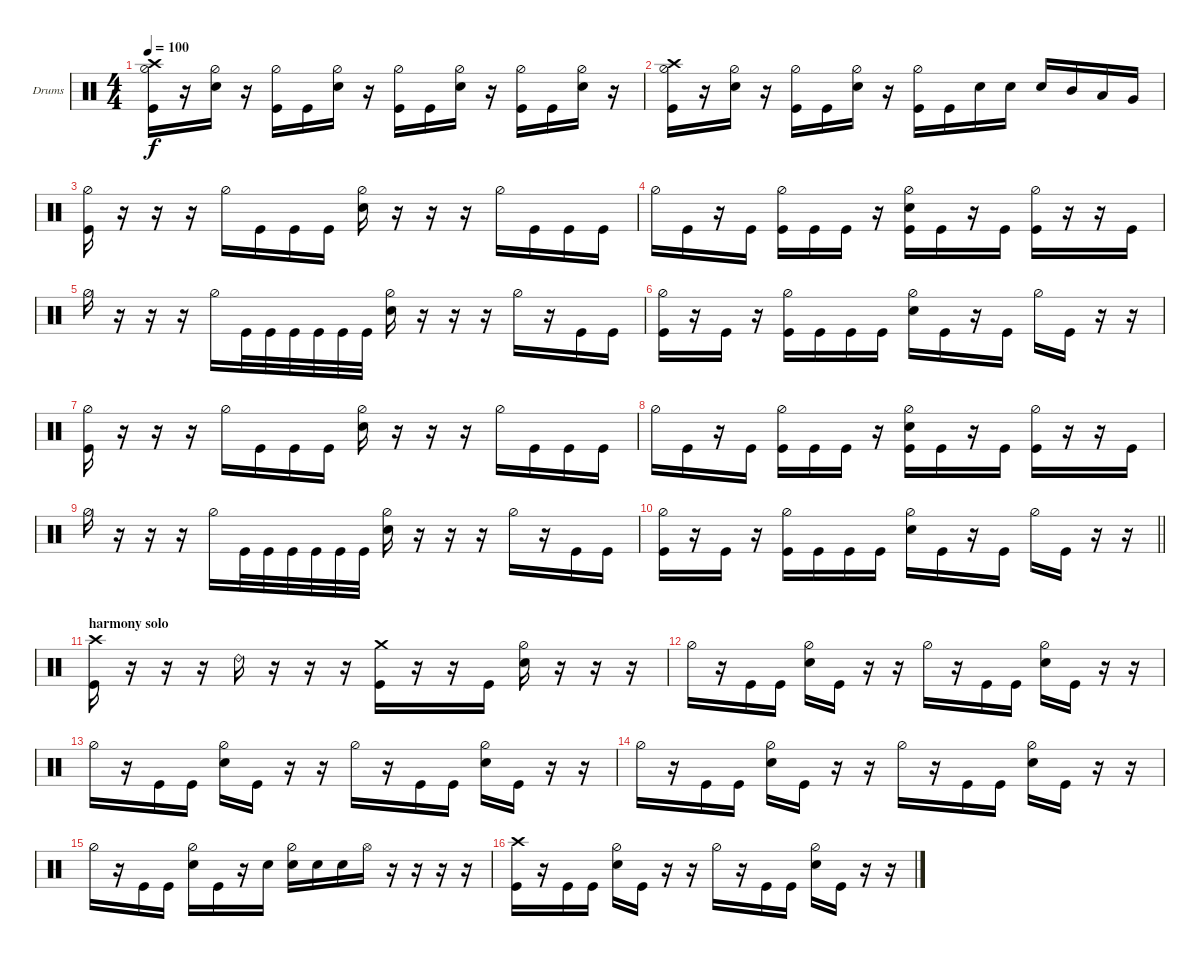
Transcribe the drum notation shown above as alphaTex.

\bracketExtendMode groupsimilarinstruments
\firstSystemTrackNameOrientation horizontal
\otherSystemsTrackNameOrientation horizontal
\track ("Drumkit" "Drums") {instrument percussion}
\staff {score}
\articulation defaults
\ts (4 4)
\tempo 100
\clef neutral
\scale
0.333333
\ks c
("Hi-Hat (half)" "Kick (hit)" "Crash high (hit)").16{dy f} r.16 ("Hi-Hat (half)" "Snare (hit) 2").16 r.16 ("Hi-Hat (half)" "Kick (hit)").16 "Kick (hit)".16 ("Hi-Hat (half)" "Snare (hit) 2").16 r.16 ("Hi-Hat (half)" "Kick (hit)").16 "Kick (hit)".16 ("Hi-Hat (half)" "Snare (hit) 2").16 r.16 ("Hi-Hat (half)" "Kick (hit)").16 "Kick (hit)".16 ("Hi-Hat (half)" "Snare (hit) 2").16 r.16 |
\scale
0.333333 ("Hi-Hat (half)" "Kick (hit)" "Crash high (hit)").16 r.16 ("Hi-Hat (half)" "Snare (hit) 2").16 r.16 ("Hi-Hat (half)" "Kick (hit)").16 "Kick (hit)".16 ("Hi-Hat (half)" "Snare (hit) 2").16 r.16 ("Hi-Hat (half)" "Kick (hit)").16 "Kick (hit)".16 "Snare (hit) 2".16 "Snare (hit) 2".16 "Snare (hit) 2".16 "Mid Tom (hit)".16 "Low Tom (hit)".16 "Very Low Tom (hit)".16 |
\scale
0.333333 ("Hi-Hat (half)" "Kick (hit)").16 r.16 r.16 r.16 "Hi-Hat (half)".16 "Kick (hit)".16 "Kick (hit)".16 "Kick (hit)".16 ("Hi-Hat (half)" "Snare (hit) 2").16 r.16 r.16 r.16 "Hi-Hat (half)".16 "Kick (hit)".16 "Kick (hit)".16 "Kick (hit)".16 |
\scale
0.333333 "Hi-Hat (half)".16 "Kick (hit)".16 r.16 "Kick (hit)".16 ("Hi-Hat (half)" "Kick (hit)").16 "Kick (hit)".16 "Kick (hit)".16 r.16 ("Hi-Hat (half)" "Kick (hit)" "Snare (hit) 2").16 "Kick (hit)".16 r.16 "Kick (hit)".16 ("Hi-Hat (half)" "Kick (hit)").16 r.16 r.16 "Kick (hit)".16 |
\scale
0.333333 "Hi-Hat (half)".16 r.16 r.16 r.16 "Hi-Hat (half)".16 "Kick (hit)".32 "Kick (hit)".32 "Kick (hit)".32 "Kick (hit)".32 "Kick (hit)".32 "Kick (hit)".32 ("Hi-Hat (half)" "Snare (hit) 2").16 r.16 r.16 r.16 "Hi-Hat (half)".16 r.16 "Kick (hit)".16 "Kick (hit)".16 |
\scale
0.333333 ("Kick (hit)" "Hi-Hat (half)").16 r.16 "Kick (hit)".16 r.16 ("Kick (hit)" "Hi-Hat (half)").16 "Kick (hit)".16 "Kick (hit)".16 "Kick (hit)".16 ("Hi-Hat (half)" "Snare (hit) 2").16 "Kick (hit)".16 r.16 "Kick (hit)".16 "Hi-Hat (half)".16 "Kick (hit)".16 r.16 r.16 |
\scale
0.333333 ("Hi-Hat (half)" "Kick (hit)").16 r.16 r.16 r.16 "Hi-Hat (half)".16 "Kick (hit)".16 "Kick (hit)".16 "Kick (hit)".16 ("Hi-Hat (half)" "Snare (hit) 2").16 r.16 r.16 r.16 "Hi-Hat (half)".16 "Kick (hit)".16 "Kick (hit)".16 "Kick (hit)".16 |
\scale
0.333333 "Hi-Hat (half)".16 "Kick (hit)".16 r.16 "Kick (hit)".16 ("Hi-Hat (half)" "Kick (hit)").16 "Kick (hit)".16 "Kick (hit)".16 r.16 ("Hi-Hat (half)" "Kick (hit)" "Snare (hit) 2").16 "Kick (hit)".16 r.16 "Kick (hit)".16 ("Hi-Hat (half)" "Kick (hit)").16 r.16 r.16 "Kick (hit)".16 |
\scale
0.333333 "Hi-Hat (half)".16 r.16 r.16 r.16 "Hi-Hat (half)".16 "Kick (hit)".32 "Kick (hit)".32 "Kick (hit)".32 "Kick (hit)".32 "Kick (hit)".32 "Kick (hit)".32 ("Hi-Hat (half)" "Snare (hit) 2").16 r.16 r.16 r.16 "Hi-Hat (half)".16 r.16 "Kick (hit)".16 "Kick (hit)".16 |
\scale
0.333333
\barLineRight lightlight
("Kick (hit)" "Hi-Hat (half)").16 r.16 "Kick (hit)".16 r.16 ("Kick (hit)" "Hi-Hat (half)").16 "Kick (hit)".16 "Kick (hit)".16 "Kick (hit)".16 ("Hi-Hat (half)" "Snare (hit) 2").16 "Kick (hit)".16 r.16 "Kick (hit)".16 "Hi-Hat (half)".16 "Kick (hit)".16 r.16 r.16 |
\section ("" "harmony solo")
\scale
0.333333 ("Kick (hit)" "Crash high (hit)").16 r.16 r.16 r.16 "Ride (bell) 2".16 r.16 r.16 r.16 ("Kick (hit)" "Crash medium (hit)").16 r.16 r.16 "Kick (hit)".16 ("Snare (hit) 2" "Hi-Hat (half)").16 r.16 r.16 r.16 |
\scale
0.333333 "Hi-Hat (half)".16 r.16 "Kick (hit)".16 "Kick (hit)".16 ("Hi-Hat (half)" "Snare (hit) 2").16 "Kick (hit)".16 r.16 r.16 "Hi-Hat (half)".16 r.16 "Kick (hit)".16 "Kick (hit)".16 ("Hi-Hat (half)" "Snare (hit) 2").16 "Kick (hit)".16 r.16 r.16 |
\scale
0.333333 "Hi-Hat (half)".16 r.16 "Kick (hit)".16 "Kick (hit)".16 ("Hi-Hat (half)" "Snare (hit) 2").16 "Kick (hit)".16 r.16 r.16 "Hi-Hat (half)".16 r.16 "Kick (hit)".16 "Kick (hit)".16 ("Hi-Hat (half)" "Snare (hit) 2").16 "Kick (hit)".16 r.16 r.16 |
\scale
0.333333 "Hi-Hat (half)".16 r.16 "Kick (hit)".16 "Kick (hit)".16 ("Hi-Hat (half)" "Snare (hit) 2").16 "Kick (hit)".16 r.16 r.16 "Hi-Hat (half)".16 r.16 "Kick (hit)".16 "Kick (hit)".16 ("Hi-Hat (half)" "Snare (hit) 2").16 "Kick (hit)".16 r.16 r.16 |
\scale
0.333333 "Hi-Hat (half)".16 r.16 "Kick (hit)".16 "Kick (hit)".16 ("Hi-Hat (half)" "Snare (hit) 2").16 "Kick (hit)".16 r.16 "Snare (hit) 2".16 ("Hi-Hat (half)" "Snare (hit) 2").16 "Snare (hit) 2".16 "Snare (hit) 2".16 "Hi-Hat (open)".16 r.16 r.16 r.16 r.16 |
\scale
0.333333 ("Crash high (hit)" "Kick (hit)").16 r.16 "Kick (hit)".16 "Kick (hit)".16 ("Hi-Hat (half)" "Snare (hit) 2").16 "Kick (hit)".16 r.16 r.16 "Hi-Hat (half)".16 r.16 "Kick (hit)".16 "Kick (hit)".16 ("Hi-Hat (half)" "Snare (hit) 2").16 "Kick (hit)".16 r.16 r.16
